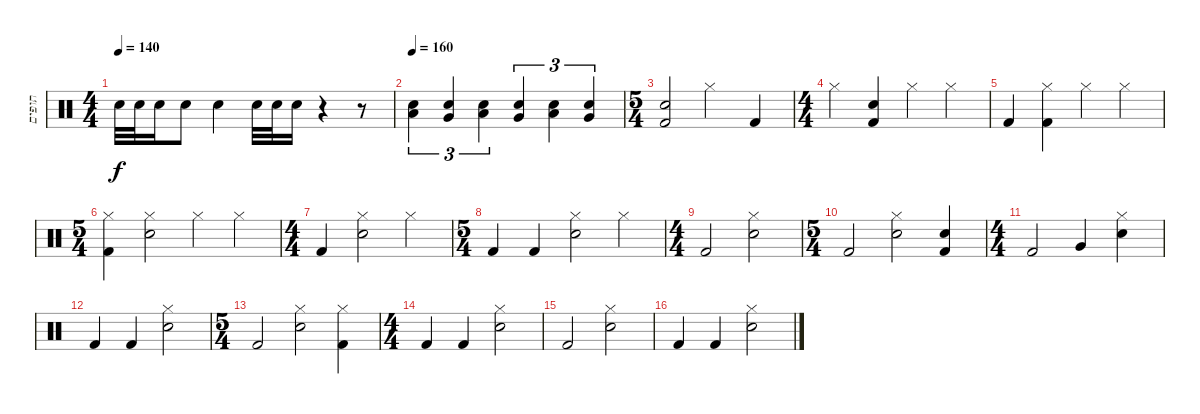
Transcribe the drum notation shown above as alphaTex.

\track ("תופים" "תופים") {instrument percussion}
\staff {score}
\articulation defaults
\ts (4 4)
\tempo 140
\clef neutral
\ks c "Snare (hit) 2".32{dy f} "Snare (hit) 2".32 "Snare (hit) 2".16 "Snare (hit) 2".8 "Snare (hit) 2".4 "Snare (hit) 2".32 "Snare (hit) 2".32 "Snare (hit) 2".16
r.4 r.8 |
\tempo 160
("Snare (hit) 2" "Low Floor Tom (hit)").4{tu (3 2)} ("Snare (hit) 2" "Very Low Tom (hit)").4{tu (3 2)} ("Snare (hit) 2" "Low Floor Tom (hit)").4{tu (3 2)} ("Snare (hit) 2" "Very Low Tom (hit)").4{tu (3 2)} ("Snare (hit) 2" "Low Floor Tom (hit)").4{tu (3 2)} ("Snare (hit) 2" "Very Low Tom (hit)").4{tu (3 2)} |
\ts (5 4)
("Kick (hit) 2" "Snare (hit) 2").2 "Hi-Hat (closed)".2 "Kick (hit) 2".4 |
\ts (4 4)
"Hi-Hat (closed)".4 ("Kick (hit) 2" "Snare (hit) 2").4 "Hi-Hat (closed)".4 "Hi-Hat (closed)".4 |
"Kick (hit) 2".4 ("Hi-Hat (closed)" "Kick (hit) 2").4 "Hi-Hat (closed)".4 "Hi-Hat (closed)".4 |
\ts (5 4)
("Hi-Hat (closed)" "Kick (hit) 2").4 ("Snare (hit) 2" "Hi-Hat (closed)").2 "Hi-Hat (closed)".4 "Hi-Hat (closed)".4 |
\ts (4 4)
"Kick (hit) 2".4 ("Hi-Hat (closed)" "Snare (hit) 2").2 "Hi-Hat (closed)".4 |
\ts (5 4)
"Kick (hit) 2".4 "Kick (hit) 2".4 ("Hi-Hat (closed)" "Snare (hit) 2").2 "Hi-Hat (closed)".4 |
\ts (4 4)
"Kick (hit) 2".2 ("Hi-Hat (closed)" "Snare (hit) 2").2 |
\ts (5 4)
"Kick (hit) 2".2 ("Hi-Hat (closed)" "Snare (hit) 2").2 ("Snare (hit) 2" "Kick (hit) 2").4 |
\ts (4 4)
"Kick (hit) 2".2 "Very Low Tom (hit)".4 ("Hi-Hat (closed)" "Snare (hit) 2").4 |
"Kick (hit) 2".4 "Kick (hit) 2".4 ("Hi-Hat (closed)" "Snare (hit) 2").2 |
\ts (5 4)
"Kick (hit) 2".2 ("Hi-Hat (closed)" "Snare (hit) 2").2 ("Hi-Hat (closed)" "Kick (hit) 2").4 |
\ts (4 4)
"Kick (hit) 2".4 "Kick (hit) 2".4 ("Hi-Hat (closed)" "Snare (hit) 2").2 |
"Kick (hit) 2".2 ("Hi-Hat (closed)" "Snare (hit) 2").2 |
"Kick (hit) 2".4 "Kick (hit) 2".4 ("Hi-Hat (closed)" "Snare (hit) 2").2
